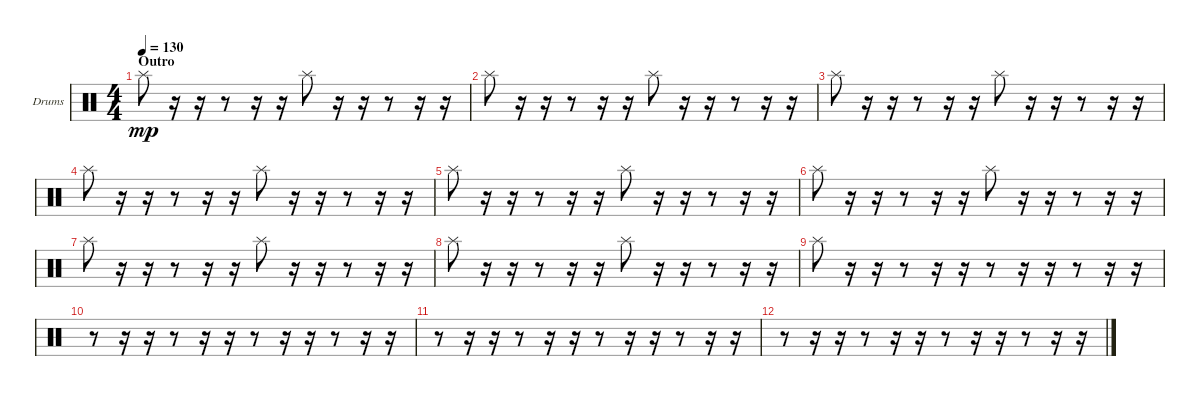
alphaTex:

\bracketExtendMode groupsimilarinstruments
\firstSystemTrackNameOrientation horizontal
\otherSystemsTrackNameOrientation horizontal
\track ("Drumkit" "Drums") {instrument percussion}
\staff {score}
\articulation defaults
\ts (4 4)
\section ("" "Outro")
\tempo 130
\clef neutral
\ks c "Splash (hit)".8{dy mp}
r.16 r.16 r.8 r.16 r.16 "Splash (hit)".8 r.16 r.16 r.8 r.16 r.16 |
"Splash (hit)".8 r.16 r.16 r.8 r.16 r.16 "Splash (hit)".8 r.16 r.16 r.8 r.16 r.16 |
"Splash (hit)".8 r.16 r.16 r.8 r.16 r.16 "Splash (hit)".8 r.16 r.16 r.8 r.16 r.16 |
"Splash (hit)".8 r.16 r.16 r.8 r.16 r.16 "Splash (hit)".8 r.16 r.16 r.8 r.16 r.16 |
"Splash (hit)".8 r.16 r.16 r.8 r.16 r.16 "Splash (hit)".8 r.16 r.16 r.8 r.16 r.16 |
"Splash (hit)".8 r.16 r.16 r.8 r.16 r.16 "Splash (hit)".8 r.16 r.16 r.8 r.16 r.16 |
"Splash (hit)".8 r.16 r.16 r.8 r.16 r.16 "Splash (hit)".8 r.16 r.16 r.8 r.16 r.16 |
"Splash (hit)".8 r.16 r.16 r.8 r.16 r.16 "Splash (hit)".8 r.16 r.16 r.8 r.16 r.16 |
"Splash (hit)".8 r.16 r.16 r.8 r.16 r.16 r.8 r.16 r.16 r.8 r.16 r.16 |
r.8 r.16 r.16 r.8 r.16 r.16 r.8 r.16 r.16 r.8 r.16 r.16 |
r.8 r.16 r.16 r.8 r.16 r.16 r.8 r.16 r.16 r.8 r.16 r.16 |
r.8 r.16 r.16 r.8 r.16 r.16 r.8 r.16 r.16 r.8 r.16 r.16
